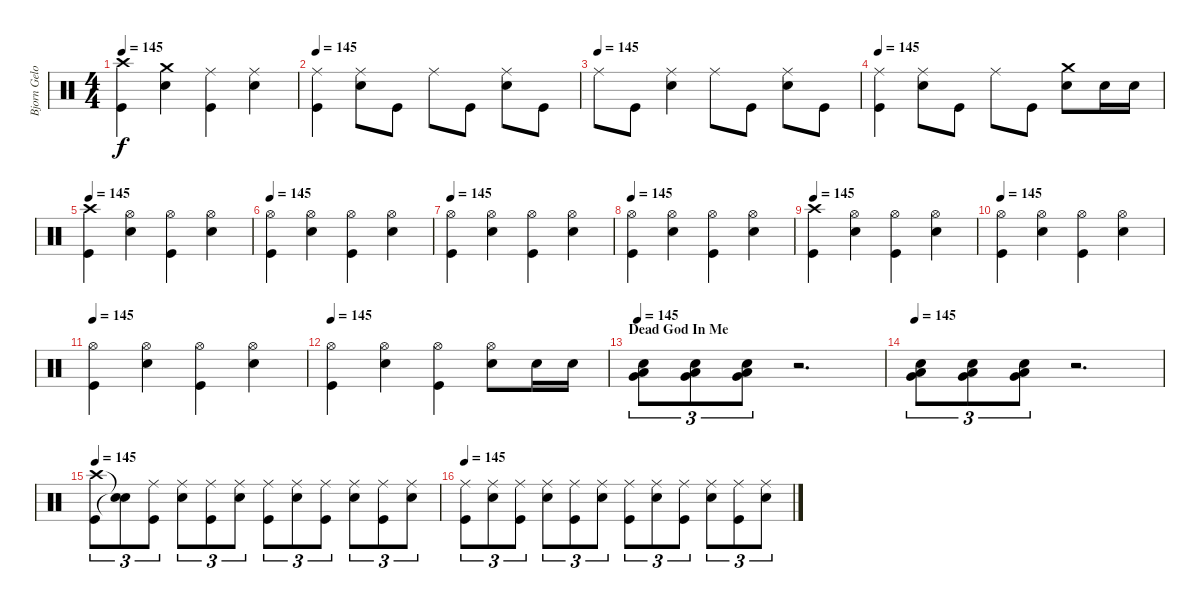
\track ("Bjorn Gelotte-Drum" "Bjorn Gelo") {instrument percussion}
\staff {score}
\articulation defaults
\ts (4 4)
\tempo 145
\clef neutral
\ks c
("Crash high (hit)" "Kick (hit)").4{dy f} ("Crash medium (hit)" "Electric Snare (hit)").4 ("Ride (middle)" "Kick (hit)").4 ("Ride (middle)" "Electric Snare (hit)").4 |
\tempo 145
("Ride (middle)" "Kick (hit)").4 ("Ride (middle)" "Electric Snare (hit)").8 "Kick (hit)".8 "Ride (middle)".8 "Kick (hit)".8 ("Ride (middle)" "Electric Snare (hit)").8 "Kick (hit)".8 |
\tempo (145)
"Ride (middle)".8 "Kick (hit)".8 ("Ride (middle)" "Electric Snare (hit)").4 "Ride (middle)".8 "Kick (hit)".8 ("Ride (middle)" "Electric Snare (hit)").8 "Kick (hit)".8 |
\tempo 145
("Ride (middle)" "Kick (hit)").4 ("Ride (middle)" "Electric Snare (hit)").8 "Kick (hit)".8 "Ride (middle)".8 "Kick (hit)".8 ("Crash medium (hit)" "Electric Snare (hit)").8 "Electric Snare (hit)".16 "Electric Snare (hit)".16 |
\tempo 145
("Crash high (hit)" "Kick (hit)").4 ("Hi-Hat (open)" "Electric Snare (hit)").4 ("Hi-Hat (open)" "Kick (hit)").4 ("Hi-Hat (open)" "Electric Snare (hit)").4 |
\tempo 145
("Hi-Hat (open)" "Kick (hit)").4 ("Hi-Hat (open)" "Electric Snare (hit)").4 ("Hi-Hat (open)" "Kick (hit)").4 ("Hi-Hat (open)" "Electric Snare (hit)").4 |
\tempo 145
("Hi-Hat (open)" "Kick (hit)").4 ("Hi-Hat (open)" "Electric Snare (hit)").4 ("Hi-Hat (open)" "Kick (hit)").4 ("Hi-Hat (open)" "Electric Snare (hit)").4 |
\tempo 145
("Hi-Hat (open)" "Kick (hit)").4 ("Hi-Hat (open)" "Electric Snare (hit)").4 ("Hi-Hat (open)" "Kick (hit)").4 ("Hi-Hat (open)" "Electric Snare (hit)").4 |
\tempo 145
("Crash high (hit)" "Kick (hit)").4 ("Hi-Hat (open)" "Electric Snare (hit)").4 ("Hi-Hat (open)" "Kick (hit)").4 ("Hi-Hat (open)" "Electric Snare (hit)").4 |
\tempo 145
("Hi-Hat (open)" "Kick (hit)").4 ("Hi-Hat (open)" "Electric Snare (hit)").4 ("Hi-Hat (open)" "Kick (hit)").4 ("Hi-Hat (open)" "Electric Snare (hit)").4 |
\tempo 145
("Hi-Hat (open)" "Kick (hit)").4 ("Hi-Hat (open)" "Electric Snare (hit)").4 ("Hi-Hat (open)" "Kick (hit)").4 ("Hi-Hat (open)" "Electric Snare (hit)").4 |
\tempo 145
("Hi-Hat (open)" "Kick (hit)").4 ("Hi-Hat (open)" "Electric Snare (hit)").4 ("Hi-Hat (open)" "Kick (hit)").4 ("Hi-Hat (open)" "Electric Snare (hit)").8 "Electric Snare (hit)".16 "Electric Snare (hit)".16 |
\section ("" "Dead God In Me")
\tempo 145
("Electric Snare (hit)" "Very Low Tom (hit)" "Low Floor Tom (hit)").8{tu (3 2)} ("Electric Snare (hit)" "Very Low Tom (hit)" "Low Floor Tom (hit)").8{tu (3 2)} ("Electric Snare (hit)" "Very Low Tom (hit)" "Low Floor Tom (hit)").8{tu (3 2)} r.2{d} |
\tempo 145
("Electric Snare (hit)" "Very Low Tom (hit)" "Low Floor Tom (hit)").8{tu (3 2)} ("Electric Snare (hit)" "Very Low Tom (hit)" "Low Floor Tom (hit)").8{tu (3 2)} ("Electric Snare (hit)" "Very Low Tom (hit)" "Low Floor Tom (hit)").8{tu (3 2)} r.2{d} |
\tempo 145
("Crash high (hit)" "Kick (hit)").8{tu (3 2)} ("Snare (hit)"{t} "Snare (hit)"{t}).8{tu (3 2)} ("Ride (middle)" "Kick (hit)").8{tu (3 2)} ("Ride (middle)" "Electric Snare (hit)").8{tu (3 2)} ("Ride (middle)" "Kick (hit)").8{tu (3 2)} ("Ride (middle)" "Electric Snare (hit)").8{tu (3 2)} ("Ride (middle)" "Kick (hit)").8{tu (3 2)} ("Ride (middle)" "Electric Snare (hit)").8{tu (3 2)} ("Ride (middle)" "Kick (hit)").8{tu (3 2)} ("Ride (middle)" "Electric Snare (hit)").8{tu (3 2)} ("Ride (middle)" "Kick (hit)").8{tu (3 2)} ("Ride (middle)" "Electric Snare (hit)").8{tu (3 2)} |
\tempo 145
("Ride (middle)" "Kick (hit)").8{tu (3 2)} ("Ride (middle)" "Electric Snare (hit)").8{tu (3 2)} ("Ride (middle)" "Kick (hit)").8{tu (3 2)} ("Ride (middle)" "Electric Snare (hit)").8{tu (3 2)} ("Ride (middle)" "Kick (hit)").8{tu (3 2)} ("Ride (middle)" "Electric Snare (hit)").8{tu (3 2)} ("Ride (middle)" "Kick (hit)").8{tu (3 2)} ("Ride (middle)" "Electric Snare (hit)").8{tu (3 2)} ("Ride (middle)" "Kick (hit)").8{tu (3 2)} ("Ride (middle)" "Electric Snare (hit)").8{tu (3 2)} ("Ride (middle)" "Kick (hit)").8{tu (3 2)} ("Ride (middle)" "Electric Snare (hit)").8{tu (3 2)}
